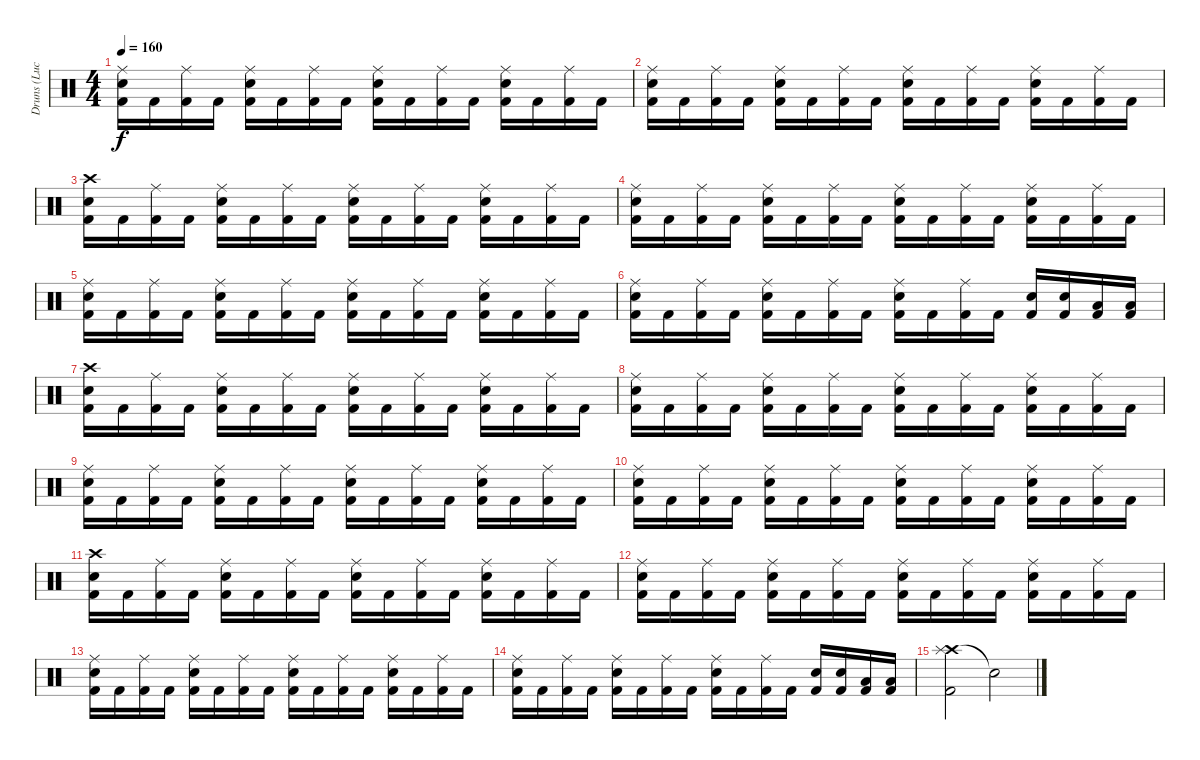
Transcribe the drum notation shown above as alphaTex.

\track ("Druns (Lucas Zigarti)" "Druns (Luc") {instrument percussion}
\staff {score}
\articulation defaults
\ts (4 4)
\tempo 160
\clef neutral
\ks c
("Electric Snare (hit)" "Ride (middle)" "Kick (hit) 2").16{dy f} "Kick (hit) 2".16 ("Ride (middle)" "Kick (hit) 2").16 "Kick (hit) 2".16 ("Electric Snare (hit)" "Ride (middle)" "Kick (hit) 2").16 "Kick (hit) 2".16 ("Ride (middle)" "Kick (hit) 2").16 "Kick (hit) 2".16 ("Electric Snare (hit)" "Ride (middle)" "Kick (hit) 2").16 "Kick (hit) 2".16 ("Ride (middle)" "Kick (hit) 2").16 "Kick (hit) 2".16 ("Electric Snare (hit)" "Ride (middle)" "Kick (hit) 2").16 "Kick (hit) 2".16 ("Ride (middle)" "Kick (hit) 2").16 "Kick (hit) 2".16 |
("Electric Snare (hit)" "Ride (middle)" "Kick (hit) 2").16 "Kick (hit) 2".16 ("Ride (middle)" "Kick (hit) 2").16 "Kick (hit) 2".16 ("Electric Snare (hit)" "Ride (middle)" "Kick (hit) 2").16 "Kick (hit) 2".16 ("Ride (middle)" "Kick (hit) 2").16 "Kick (hit) 2".16 ("Electric Snare (hit)" "Ride (middle)" "Kick (hit) 2").16 "Kick (hit) 2".16 ("Ride (middle)" "Kick (hit) 2").16 "Kick (hit) 2".16 ("Electric Snare (hit)" "Ride (middle)" "Kick (hit) 2").16 "Kick (hit) 2".16 ("Ride (middle)" "Kick (hit) 2").16 "Kick (hit) 2".16 |
("Electric Snare (hit)" "Crash high (hit)" "Kick (hit) 2").16 "Kick (hit) 2".16 ("Ride (middle)" "Kick (hit) 2").16 "Kick (hit) 2".16 ("Electric Snare (hit)" "Ride (middle)" "Kick (hit) 2").16 "Kick (hit) 2".16 ("Ride (middle)" "Kick (hit) 2").16 "Kick (hit) 2".16 ("Electric Snare (hit)" "Ride (middle)" "Kick (hit) 2").16 "Kick (hit) 2".16 ("Ride (middle)" "Kick (hit) 2").16 "Kick (hit) 2".16 ("Electric Snare (hit)" "Ride (middle)" "Kick (hit) 2").16 "Kick (hit) 2".16 ("Ride (middle)" "Kick (hit) 2").16 "Kick (hit) 2".16 |
("Electric Snare (hit)" "Ride (middle)" "Kick (hit) 2").16 "Kick (hit) 2".16 ("Ride (middle)" "Kick (hit) 2").16 "Kick (hit) 2".16 ("Electric Snare (hit)" "Ride (middle)" "Kick (hit) 2").16 "Kick (hit) 2".16 ("Ride (middle)" "Kick (hit) 2").16 "Kick (hit) 2".16 ("Electric Snare (hit)" "Ride (middle)" "Kick (hit) 2").16 "Kick (hit) 2".16 ("Ride (middle)" "Kick (hit) 2").16 "Kick (hit) 2".16 ("Electric Snare (hit)" "Ride (middle)" "Kick (hit) 2").16 "Kick (hit) 2".16 ("Ride (middle)" "Kick (hit) 2").16 "Kick (hit) 2".16 |
("Electric Snare (hit)" "Ride (middle)" "Kick (hit) 2").16 "Kick (hit) 2".16 ("Ride (middle)" "Kick (hit) 2").16 "Kick (hit) 2".16 ("Electric Snare (hit)" "Ride (middle)" "Kick (hit) 2").16 "Kick (hit) 2".16 ("Ride (middle)" "Kick (hit) 2").16 "Kick (hit) 2".16 ("Electric Snare (hit)" "Ride (middle)" "Kick (hit) 2").16 "Kick (hit) 2".16 ("Ride (middle)" "Kick (hit) 2").16 "Kick (hit) 2".16 ("Electric Snare (hit)" "Ride (middle)" "Kick (hit) 2").16 "Kick (hit) 2".16 ("Ride (middle)" "Kick (hit) 2").16 "Kick (hit) 2".16 |
("Electric Snare (hit)" "Ride (middle)" "Kick (hit) 2").16 "Kick (hit) 2".16 ("Ride (middle)" "Kick (hit) 2").16 "Kick (hit) 2".16 ("Electric Snare (hit)" "Ride (middle)" "Kick (hit) 2").16 "Kick (hit) 2".16 ("Ride (middle)" "Kick (hit) 2").16 "Kick (hit) 2".16 ("Electric Snare (hit)" "Ride (middle)" "Kick (hit) 2").16 "Kick (hit) 2".16 ("Ride (middle)" "Kick (hit) 2").16 "Kick (hit) 2".16 ("Electric Snare (hit)" "Kick (hit) 2").16 ("Electric Snare (hit)" "Kick (hit) 2").16 ("Low Floor Tom (hit)" "Kick (hit) 2").16 ("Low Floor Tom (hit)" "Kick (hit) 2").16 |
("Electric Snare (hit)" "Crash high (hit)" "Kick (hit) 2").16 "Kick (hit) 2".16 ("Ride (middle)" "Kick (hit) 2").16 "Kick (hit) 2".16 ("Electric Snare (hit)" "Ride (middle)" "Kick (hit) 2").16 "Kick (hit) 2".16 ("Ride (middle)" "Kick (hit) 2").16 "Kick (hit) 2".16 ("Electric Snare (hit)" "Ride (middle)" "Kick (hit) 2").16 "Kick (hit) 2".16 ("Ride (middle)" "Kick (hit) 2").16 "Kick (hit) 2".16 ("Electric Snare (hit)" "Ride (middle)" "Kick (hit) 2").16 "Kick (hit) 2".16 ("Ride (middle)" "Kick (hit) 2").16 "Kick (hit) 2".16 |
("Electric Snare (hit)" "Ride (middle)" "Kick (hit) 2").16 "Kick (hit) 2".16 ("Ride (middle)" "Kick (hit) 2").16 "Kick (hit) 2".16 ("Electric Snare (hit)" "Ride (middle)" "Kick (hit) 2").16 "Kick (hit) 2".16 ("Ride (middle)" "Kick (hit) 2").16 "Kick (hit) 2".16 ("Electric Snare (hit)" "Ride (middle)" "Kick (hit) 2").16 "Kick (hit) 2".16 ("Ride (middle)" "Kick (hit) 2").16 "Kick (hit) 2".16 ("Electric Snare (hit)" "Ride (middle)" "Kick (hit) 2").16 "Kick (hit) 2".16 ("Ride (middle)" "Kick (hit) 2").16 "Kick (hit) 2".16 |
("Electric Snare (hit)" "Ride (middle)" "Kick (hit) 2").16 "Kick (hit) 2".16 ("Ride (middle)" "Kick (hit) 2").16 "Kick (hit) 2".16 ("Electric Snare (hit)" "Ride (middle)" "Kick (hit) 2").16 "Kick (hit) 2".16 ("Ride (middle)" "Kick (hit) 2").16 "Kick (hit) 2".16 ("Electric Snare (hit)" "Ride (middle)" "Kick (hit) 2").16 "Kick (hit) 2".16 ("Ride (middle)" "Kick (hit) 2").16 "Kick (hit) 2".16 ("Electric Snare (hit)" "Ride (middle)" "Kick (hit) 2").16 "Kick (hit) 2".16 ("Ride (middle)" "Kick (hit) 2").16 "Kick (hit) 2".16 |
("Electric Snare (hit)" "Ride (middle)" "Kick (hit) 2").16 "Kick (hit) 2".16 ("Ride (middle)" "Kick (hit) 2").16 "Kick (hit) 2".16 ("Electric Snare (hit)" "Ride (middle)" "Kick (hit) 2").16 "Kick (hit) 2".16 ("Ride (middle)" "Kick (hit) 2").16 "Kick (hit) 2".16 ("Electric Snare (hit)" "Ride (middle)" "Kick (hit) 2").16 "Kick (hit) 2".16 ("Ride (middle)" "Kick (hit) 2").16 "Kick (hit) 2".16 ("Electric Snare (hit)" "Ride (middle)" "Kick (hit) 2").16 "Kick (hit) 2".16 ("Ride (middle)" "Kick (hit) 2").16 "Kick (hit) 2".16 |
("Electric Snare (hit)" "Crash high (hit)" "Kick (hit) 2").16 "Kick (hit) 2".16 ("Ride (middle)" "Kick (hit) 2").16 "Kick (hit) 2".16 ("Electric Snare (hit)" "Ride (middle)" "Kick (hit) 2").16 "Kick (hit) 2".16 ("Ride (middle)" "Kick (hit) 2").16 "Kick (hit) 2".16 ("Electric Snare (hit)" "Ride (middle)" "Kick (hit) 2").16 "Kick (hit) 2".16 ("Ride (middle)" "Kick (hit) 2").16 "Kick (hit) 2".16 ("Electric Snare (hit)" "Ride (middle)" "Kick (hit) 2").16 "Kick (hit) 2".16 ("Ride (middle)" "Kick (hit) 2").16 "Kick (hit) 2".16 |
("Electric Snare (hit)" "Ride (middle)" "Kick (hit) 2").16 "Kick (hit) 2".16 ("Ride (middle)" "Kick (hit) 2").16 "Kick (hit) 2".16 ("Electric Snare (hit)" "Ride (middle)" "Kick (hit) 2").16 "Kick (hit) 2".16 ("Ride (middle)" "Kick (hit) 2").16 "Kick (hit) 2".16 ("Electric Snare (hit)" "Ride (middle)" "Kick (hit) 2").16 "Kick (hit) 2".16 ("Ride (middle)" "Kick (hit) 2").16 "Kick (hit) 2".16 ("Electric Snare (hit)" "Ride (middle)" "Kick (hit) 2").16 "Kick (hit) 2".16 ("Ride (middle)" "Kick (hit) 2").16 "Kick (hit) 2".16 |
("Electric Snare (hit)" "Ride (middle)" "Kick (hit) 2").16 "Kick (hit) 2".16 ("Ride (middle)" "Kick (hit) 2").16 "Kick (hit) 2".16 ("Electric Snare (hit)" "Ride (middle)" "Kick (hit) 2").16 "Kick (hit) 2".16 ("Ride (middle)" "Kick (hit) 2").16 "Kick (hit) 2".16 ("Electric Snare (hit)" "Ride (middle)" "Kick (hit) 2").16 "Kick (hit) 2".16 ("Ride (middle)" "Kick (hit) 2").16 "Kick (hit) 2".16 ("Electric Snare (hit)" "Ride (middle)" "Kick (hit) 2").16 "Kick (hit) 2".16 ("Ride (middle)" "Kick (hit) 2").16 "Kick (hit) 2".16 |
("Electric Snare (hit)" "Ride (middle)" "Kick (hit) 2").16 "Kick (hit) 2".16 ("Ride (middle)" "Kick (hit) 2").16 "Kick (hit) 2".16 ("Electric Snare (hit)" "Ride (middle)" "Kick (hit) 2").16 "Kick (hit) 2".16 ("Ride (middle)" "Kick (hit) 2").16 "Kick (hit) 2".16 ("Electric Snare (hit)" "Ride (middle)" "Kick (hit) 2").16 "Kick (hit) 2".16 ("Ride (middle)" "Kick (hit) 2").16 "Kick (hit) 2".16 ("Electric Snare (hit)" "Kick (hit) 2").16 ("Electric Snare (hit)" "Kick (hit) 2").16 ("Low Floor Tom (hit)" "Kick (hit) 2").16 ("Low Floor Tom (hit)" "Kick (hit) 2").16 |
("Crash high (hit)" "Splash (hit)" "Kick (hit) 2").2 "Snare (hit)"{t}.2
